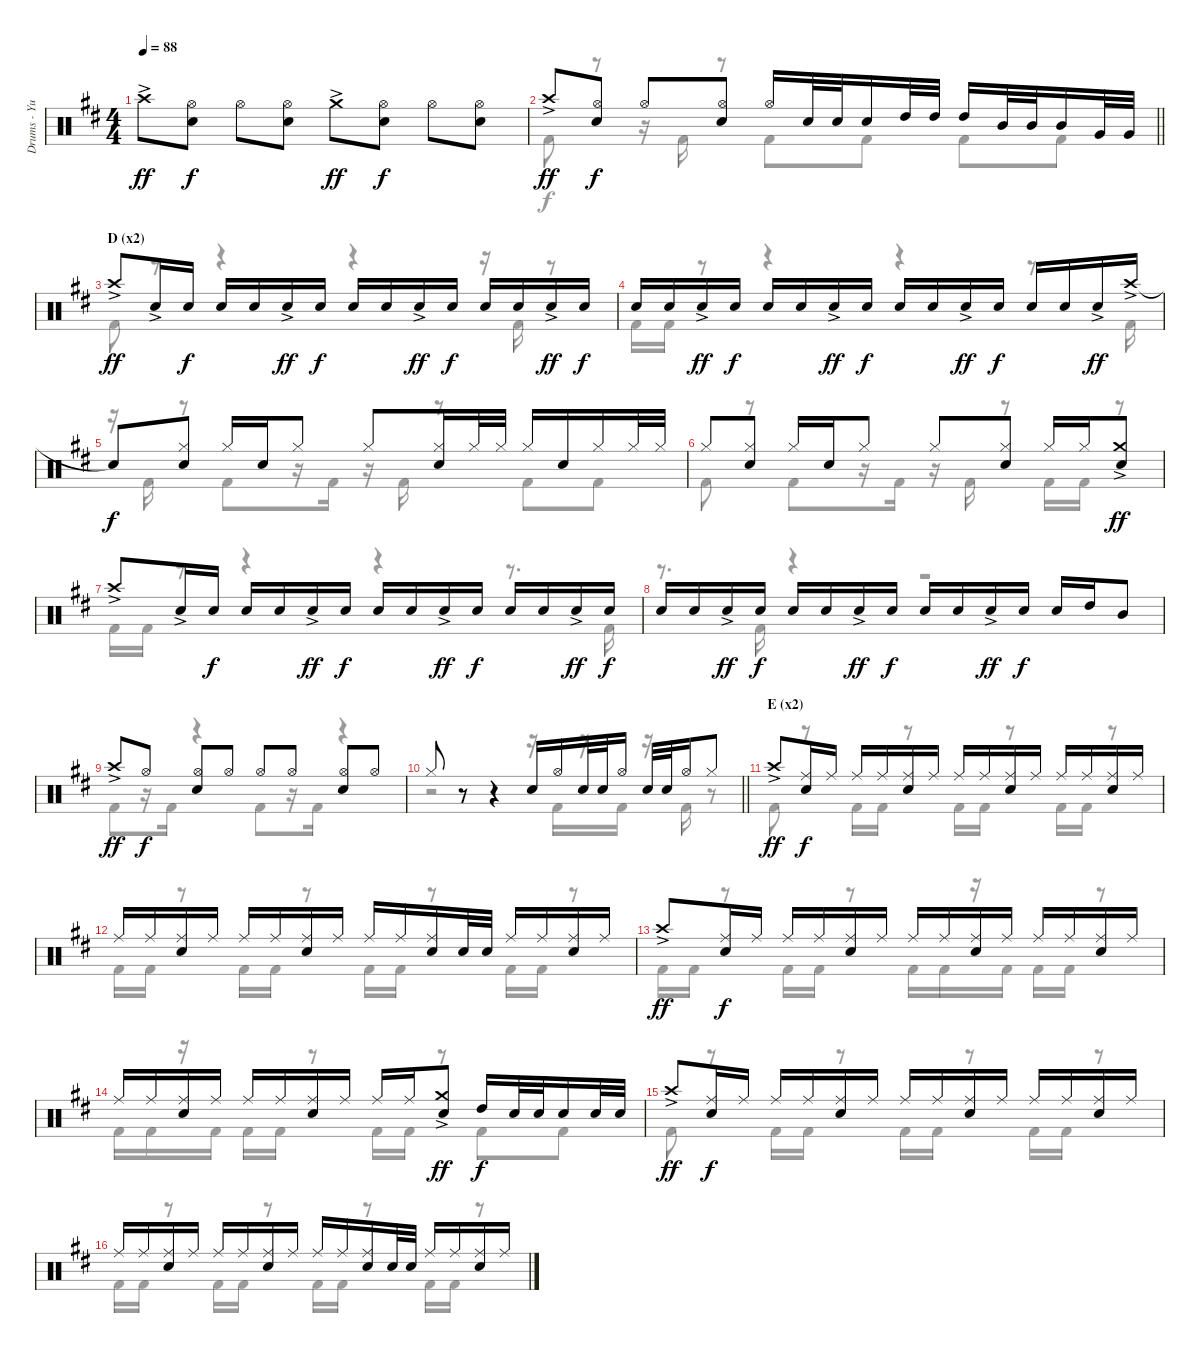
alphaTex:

\track ("Drums - Yuuya" "Drums - Yu") {instrument percussion}
\staff {score}
\articulation defaults
\voice
\ts (4 4)
\tempo 88
\clef neutral
\ks d "Crash high (hit)"{ac}.8{dy ff}
("Hi-Hat (open)" "Snare (hit) 2").8{dy f} "Hi-Hat (open)".8 ("Hi-Hat (open)" "Snare (hit) 2").8 "Crash medium (hit)"{ac}.8{dy ff} ("Hi-Hat (open)" "Snare (hit) 2").8{dy f} "Hi-Hat (open)".8 ("Hi-Hat (open)" "Snare (hit) 2").8 |
\barLineRight lightlight "Crash high (hit)"{ac}.8{dy ff}
("Hi-Hat (open)" "Snare (hit) 2").8{dy f} "Hi-Hat (open)".8 ("Hi-Hat (open)" "Snare (hit) 2").8 "Hi-Hat (open)".16 "Snare (hit) 2".32 "Snare (hit) 2".32 "Snare (hit) 2".16 "High Tom (hit)".32 "High Tom (hit)".32 "High Tom (hit)".16 "Mid Tom (hit)".32 "Mid Tom (hit)".32 "Mid Tom (hit)".16 "Very Low Tom (hit)".32 "Very Low Tom (hit)".32 |
\section ("" "D (x2)")
"Crash high (hit)"{ac}.8{dy ff} "Snare (hit) 2"{ac}.16 "Snare (hit) 2".16{dy f} "Snare (hit) 2".16 "Snare (hit) 2".16 "Snare (hit) 2"{ac}.16{dy ff} "Snare (hit) 2".16{dy f} "Snare (hit) 2".16 "Snare (hit) 2".16 "Snare (hit) 2"{ac}.16{dy ff} "Snare (hit) 2".16{dy f} "Snare (hit) 2".16 "Snare (hit) 2".16 "Snare (hit) 2"{ac}.16{dy ff} "Snare (hit) 2".16{dy f} |
"Snare (hit) 2".16 "Snare (hit) 2".16 "Snare (hit) 2"{ac}.16{dy ff} "Snare (hit) 2".16{dy f} "Snare (hit) 2".16 "Snare (hit) 2".16 "Snare (hit) 2"{ac}.16{dy ff} "Snare (hit) 2".16{dy f} "Snare (hit) 2".16 "Snare (hit) 2".16 "Snare (hit) 2"{ac}.16{dy ff} "Snare (hit) 2".16{dy f} "Snare (hit) 2".16 "Snare (hit) 2".16 "Snare (hit) 2"{ac}.16{dy ff} "Crash high (hit)"{ac}.16 |
"Snare (hit)"{t}.8{dy f} ("Hi-Hat (closed)" "Snare (hit) 2").8 "Hi-Hat (closed)".16 "Snare (hit) 2".16 "Hi-Hat (closed)".8 "Hi-Hat (closed)".8 ("Hi-Hat (closed)" "Snare (hit) 2").16 "Hi-Hat (closed)".32 "Hi-Hat (closed)".32 "Hi-Hat (closed)".16 "Snare (hit) 2".16 "Hi-Hat (closed)".16 "Hi-Hat (closed)".32 "Hi-Hat (closed)".32 |
"Hi-Hat (closed)".8 ("Hi-Hat (closed)" "Snare (hit) 2").8 "Hi-Hat (closed)".16 "Snare (hit) 2".16 "Hi-Hat (closed)".8 "Hi-Hat (closed)".8 ("Hi-Hat (closed)" "Snare (hit) 2").8 "Hi-Hat (closed)".16 "Hi-Hat (closed)".16 ("Crash medium (hit)"{ac} "Snare (hit) 2").8{dy ff} |
"Crash high (hit)"{ac}.8 "Snare (hit) 2"{ac}.16 "Snare (hit) 2".16{dy f} "Snare (hit) 2".16 "Snare (hit) 2".16 "Snare (hit) 2"{ac}.16{dy ff} "Snare (hit) 2".16{dy f} "Snare (hit) 2".16 "Snare (hit) 2".16 "Snare (hit) 2"{ac}.16{dy ff} "Snare (hit) 2".16{dy f} "Snare (hit) 2".16 "Snare (hit) 2".16 "Snare (hit) 2"{ac}.16{dy ff} "Snare (hit) 2".16{dy f} |
"Snare (hit) 2".16 "Snare (hit) 2".16 "Snare (hit) 2"{ac}.16{dy ff} "Snare (hit) 2".16{dy f} "Snare (hit) 2".16 "Snare (hit) 2".16 "Snare (hit) 2"{ac}.16{dy ff} "Snare (hit) 2".16{dy f} "Snare (hit) 2".16 "Snare (hit) 2".16 "Snare (hit) 2"{ac}.16{dy ff} "Snare (hit) 2".16{dy f} "Snare (hit) 2".16 "High Tom (hit)".16 "Mid Tom (hit)".8 |
"Crash high (hit)"{ac}.8{dy ff} "Hi-Hat (open)".8{dy f} ("Hi-Hat (open)" "Snare (hit) 2").8 "Hi-Hat (open)".8 "Hi-Hat (open)".8 "Hi-Hat (open)".8 ("Hi-Hat (open)" "Snare (hit) 2").8 "Hi-Hat (open)".8 |
\barLineRight lightlight "Hi-Hat (closed)".8
r.8 r.4 "Snare (hit) 2".16 "Hi-Hat (open)".16 "Snare (hit) 2".32 "Snare (hit) 2".32 "Hi-Hat (open)".16 "Snare (hit) 2".32 "Snare (hit) 2".32 "Hi-Hat (open)".16 "Hi-Hat (closed)".8 |
\section ("" "E (x2)")
"Crash high (hit)"{ac}.8{dy ff} ("Ride (middle)" "Snare (hit) 2").16{dy f} "Ride (middle)".16 "Ride (middle)".16 "Ride (middle)".16 ("Ride (middle)" "Snare (hit) 2").16 "Ride (middle)".16 "Ride (middle)".16 "Ride (middle)".16 ("Ride (middle)" "Snare (hit) 2").16 "Ride (middle)".16 "Ride (middle)".16 "Ride (middle)".16 ("Ride (middle)" "Snare (hit) 2").16 "Ride (middle)".16 |
"Ride (middle)".16 "Ride (middle)".16 ("Ride (middle)" "Snare (hit) 2").16 "Ride (middle)".16 "Ride (middle)".16 "Ride (middle)".16 ("Ride (middle)" "Snare (hit) 2").16 "Ride (middle)".16 "Ride (middle)".16 "Ride (middle)".16 ("Ride (middle)" "Snare (hit) 2").16 "Snare (hit) 2".32 "Snare (hit) 2".32 "Ride (middle)".16 "Ride (middle)".16 ("Ride (middle)" "Snare (hit) 2").16 "Ride (middle)".16 |
"Crash high (hit)"{ac}.8{dy ff} ("Ride (middle)" "Snare (hit) 2").16{dy f} "Ride (middle)".16 "Ride (middle)".16 "Ride (middle)".16 ("Ride (middle)" "Snare (hit) 2").16 "Ride (middle)".16 "Ride (middle)".16 "Ride (middle)".16 ("Ride (middle)" "Snare (hit) 2").16 "Ride (middle)".16 "Ride (middle)".16 "Ride (middle)".16 ("Ride (middle)" "Snare (hit) 2").16 "Ride (middle)".16 |
"Ride (middle)".16 "Ride (middle)".16 ("Ride (middle)" "Snare (hit) 2").16 "Ride (middle)".16 "Ride (middle)".16 "Ride (middle)".16 ("Ride (middle)" "Snare (hit) 2").16 "Ride (middle)".16 "Ride (middle)".16 "Ride (middle)".16 ("Crash medium (hit)"{ac} "Snare (hit) 2").8{dy ff} "High Tom (hit)".16{dy f} "Snare (hit) 2".32 "Snare (hit) 2".32 "Snare (hit) 2".16 "Snare (hit) 2".32 "Snare (hit) 2".32 |
"Crash high (hit)"{ac}.8{dy ff} ("Ride (middle)" "Snare (hit) 2").16{dy f} "Ride (middle)".16 "Ride (middle)".16 "Ride (middle)".16 ("Ride (middle)" "Snare (hit) 2").16 "Ride (middle)".16 "Ride (middle)".16 "Ride (middle)".16 ("Ride (middle)" "Snare (hit) 2").16 "Ride (middle)".16 "Ride (middle)".16 "Ride (middle)".16 ("Ride (middle)" "Snare (hit) 2").16 "Ride (middle)".16 |
"Ride (middle)".16 "Ride (middle)".16 ("Ride (middle)" "Snare (hit) 2").16 "Ride (middle)".16 "Ride (middle)".16 "Ride (middle)".16 ("Ride (middle)" "Snare (hit) 2").16 "Ride (middle)".16 "Ride (middle)".16 "Ride (middle)".16 ("Ride (middle)" "Snare (hit) 2").16 "Snare (hit) 2".32 "Snare (hit) 2".32 "Ride (middle)".16 "Ride (middle)".16 ("Ride (middle)" "Snare (hit) 2").16 "Ride (middle)".16
\voice
\clef neutral
\ottava regular
\simile none
\ks d
|
\barLineRight lightlight "Kick (hit) 2".8
r.8 r.16 "Kick (hit) 2".16 r.8 "Kick (hit) 2".8 "Kick (hit) 2".8 "Kick (hit) 2".8 "Kick (hit) 2".8 |
"Kick (hit) 2".8 r.8 r.4 r.4 r.16 "Kick (hit) 2".16 r.8 |
"Kick (hit) 2".16 "Kick (hit) 2".16 r.8 r.4 r.4 r.8{d} "Kick (hit) 2".16 |
r.16 "Kick (hit) 2".16 r.8 "Kick (hit) 2".8 r.16 "Kick (hit) 2".16 r.16 "Kick (hit) 2".16 r.8 "Kick (hit) 2".8 "Kick (hit) 2".8 |
"Kick (hit) 2".8 r.8 "Kick (hit) 2".8 r.16 "Kick (hit) 2".16 r.16 "Kick (hit) 2".16 r.8 "Kick (hit) 2".16 "Kick (hit) 2".16 r.8 |
"Kick (hit) 2".16 "Kick (hit) 2".16 r.8 r.4 r.4 r.8{d} "Kick (hit) 2".16 |
r.8{d} "Kick (hit) 2".16 r.4 r.2 |
"Kick (hit) 2".8 r.16 "Kick (hit) 2".16 r.4 "Kick (hit) 2".8 r.16 "Kick (hit) 2".16 r.4 |
\barLineRight lightlight
r.2 r.16 "Kick (hit) 2".16 r.16 "Kick (hit) 2".16 r.16 "Kick (hit) 2".16 r.8 |
"Kick (hit) 2".8 r.8 "Kick (hit) 2".16 "Kick (hit) 2".16 r.8 "Kick (hit) 2".16 "Kick (hit) 2".16 r.8 "Kick (hit) 2".16 "Kick (hit) 2".16 r.8 |
"Kick (hit) 2".16 "Kick (hit) 2".16 r.8 "Kick (hit) 2".16 "Kick (hit) 2".16 r.8 "Kick (hit) 2".16 "Kick (hit) 2".16 r.8 "Kick (hit) 2".16 "Kick (hit) 2".16 r.8 |
"Kick (hit) 2".16 "Kick (hit) 2".16 r.8 "Kick (hit) 2".16 "Kick (hit) 2".16 r.8 "Kick (hit) 2".16 "Kick (hit) 2".16 r.16 "Kick (hit) 2".16 "Kick (hit) 2".16 "Kick (hit) 2".16 r.8 |
"Kick (hit) 2".16 "Kick (hit) 2".16 r.16 "Kick (hit) 2".16 "Kick (hit) 2".16 "Kick (hit) 2".16 r.8 "Kick (hit) 2".16 "Kick (hit) 2".16 r.8 "Kick (hit) 2".8 "Kick (hit) 2".8 |
"Kick (hit) 2".8 r.8 "Kick (hit) 2".16 "Kick (hit) 2".16 r.8 "Kick (hit) 2".16 "Kick (hit) 2".16 r.8 "Kick (hit) 2".16 "Kick (hit) 2".16 r.8 |
"Kick (hit) 2".16 "Kick (hit) 2".16 r.8 "Kick (hit) 2".16 "Kick (hit) 2".16 r.8 "Kick (hit) 2".16 "Kick (hit) 2".16 r.8 "Kick (hit) 2".16 "Kick (hit) 2".16 r.8
